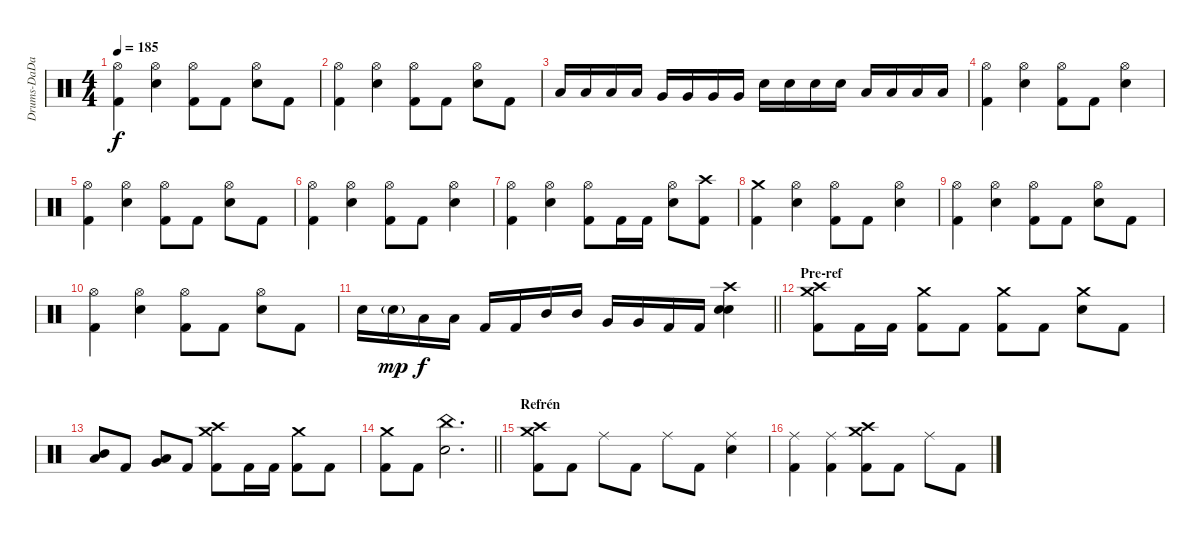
\track ("Drums-DaDa" "Drums-DaDa") {instrument percussion}
\staff {score}
\articulation defaults
\ts (4 4)
\tempo 185
\clef neutral
\ks c
("Hi-Hat (open)" "Kick (hit) 2").4{dy f} ("Hi-Hat (open)" "Electric Snare (hit)").4 ("Hi-Hat (open)" "Kick (hit) 2").8 "Kick (hit) 2".8 ("Hi-Hat (open)" "Electric Snare (hit)").8 "Kick (hit) 2".8 |
("Hi-Hat (open)" "Kick (hit) 2").4 ("Hi-Hat (open)" "Electric Snare (hit)").4 ("Hi-Hat (open)" "Kick (hit) 2").8 "Kick (hit) 2".8 ("Hi-Hat (open)" "Electric Snare (hit)").8 "Kick (hit) 2".8 |
"Low Tom (hit)".16 "Low Tom (hit)".16 "Low Tom (hit)".16 "Low Tom (hit)".16 "Very Low Tom (hit)".16 "Very Low Tom (hit)".16 "Very Low Tom (hit)".16 "Very Low Tom (hit)".16 "Electric Snare (hit)".16 "Electric Snare (hit)".16 "Electric Snare (hit)".16 "Electric Snare (hit)".16 "Low Tom (hit)".16 "Low Tom (hit)".16 "Low Tom (hit)".16 "Low Tom (hit)".16 |
("Hi-Hat (open)" "Kick (hit) 2").4 ("Hi-Hat (open)" "Electric Snare (hit)").4 ("Hi-Hat (open)" "Kick (hit) 2").8 "Kick (hit) 2".8 ("Hi-Hat (open)" "Electric Snare (hit)").4 |
("Hi-Hat (open)" "Kick (hit) 2").4 ("Hi-Hat (open)" "Electric Snare (hit)").4 ("Hi-Hat (open)" "Kick (hit) 2").8 "Kick (hit) 2".8 ("Hi-Hat (open)" "Electric Snare (hit)").8 "Kick (hit) 2".8 |
("Hi-Hat (open)" "Kick (hit) 2").4 ("Hi-Hat (open)" "Electric Snare (hit)").4 ("Hi-Hat (open)" "Kick (hit) 2").8 "Kick (hit) 2".8 ("Hi-Hat (open)" "Electric Snare (hit)").4 |
("Hi-Hat (open)" "Kick (hit) 2").4 ("Hi-Hat (open)" "Electric Snare (hit)").4 ("Hi-Hat (open)" "Kick (hit) 2").8 "Kick (hit) 2".16 "Kick (hit) 2".16 ("Hi-Hat (open)" "Electric Snare (hit)").8 ("Crash high (hit)" "Kick (hit) 2").8 |
("Crash medium (hit)" "Kick (hit) 2").4 ("Hi-Hat (open)" "Electric Snare (hit)").4 ("Hi-Hat (open)" "Kick (hit) 2").8 "Kick (hit) 2".8 ("Hi-Hat (open)" "Electric Snare (hit)").4 |
("Hi-Hat (open)" "Kick (hit) 2").4 ("Hi-Hat (open)" "Electric Snare (hit)").4 ("Hi-Hat (open)" "Kick (hit) 2").8 "Kick (hit) 2".8 ("Hi-Hat (open)" "Electric Snare (hit)").8 "Kick (hit) 2".8 |
("Hi-Hat (open)" "Kick (hit) 2").4 ("Hi-Hat (open)" "Electric Snare (hit)").4 ("Hi-Hat (open)" "Kick (hit) 2").8 "Kick (hit) 2".8 ("Hi-Hat (open)" "Electric Snare (hit)").8 "Kick (hit) 2".8 |
\barLineRight lightlight "Electric Snare (hit)".16 "Electric Snare (hit)"{g}.16{dy mp} "Low Tom (hit)".16{dy f} "Low Tom (hit)".16 "Kick (hit) 2".16 "Kick (hit) 2".16 "Mid Tom (hit)".16 "Mid Tom (hit)".16 "Very Low Tom (hit)".16 "Very Low Tom (hit)".16 "Kick (hit) 2".16 "Kick (hit) 2".16
("Crash high (hit)" "Electric Snare (hit)" "Electric Snare (hit)").4 |
\section ("" "Pre-ref")
("Crash medium (hit)" "Crash high (hit)" "Kick (hit) 2").8 "Kick (hit) 2".16 "Kick (hit) 2".16 ("Crash medium (hit)" "Kick (hit) 2").8 "Kick (hit) 2".8 ("Crash medium (hit)" "Kick (hit) 2").8 "Kick (hit) 2".8 ("Crash medium (hit)" "Electric Snare (hit)").8 "Kick (hit) 2".8 |
("Mid Tom (hit)" "Low Tom (hit)").8 "Kick (hit) 2".8 ("Low Tom (hit)" "Very Low Tom (hit)").8 "Kick (hit) 2".8 ("Crash medium (hit)" "Crash high (hit)" "Kick (hit) 2").8 "Kick (hit) 2".16 "Kick (hit) 2".16 ("Crash medium (hit)" "Kick (hit) 2").8 "Kick (hit) 2".8 |
\barLineRight lightlight
("Crash medium (hit)" "Kick (hit) 2").8 "Kick (hit) 2".8 ("China (hit)" "Electric Snare (hit)").2{d} |
\section ("" "Refrén")
("Crash medium (hit)" "Crash high (hit)" "Kick (hit) 2").8 "Kick (hit) 2".8 "Ride (middle)".8 "Kick (hit) 2".8 "Ride (middle)".8 "Kick (hit) 2".8 ("Ride (middle)" "Electric Snare (hit)").4 |
("Ride (middle)" "Kick (hit) 2").4 ("Ride (middle)" "Kick (hit) 2").4 ("Crash medium (hit)" "Crash high (hit)" "Kick (hit) 2").8 "Kick (hit) 2".8 "Ride (middle)".8 "Kick (hit) 2".8
